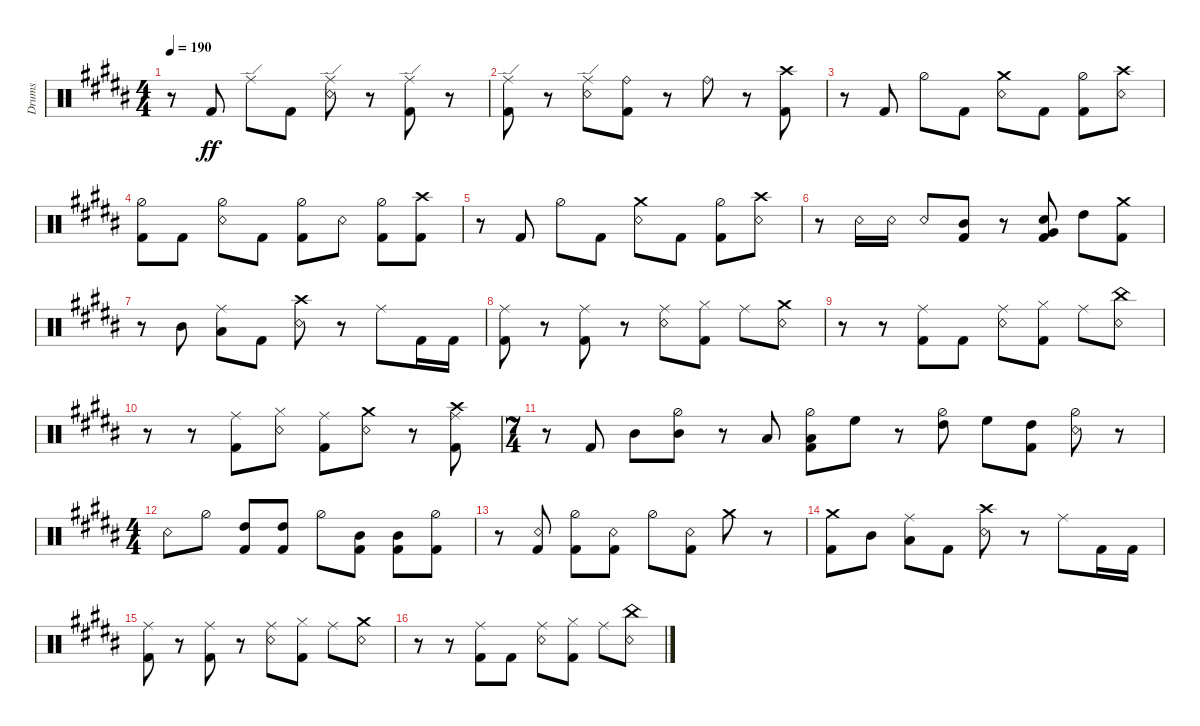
\bracketExtendMode groupsimilarinstruments
\otherSystemsTrackNameOrientation horizontal
\track ("Drumkit" "Drums") {instrument percussion}
\staff {score}
\articulation defaults
\ts (4 4)
\tempo 190
\clef neutral
\ks b
r.8{dy ff} "Kick (hit) 2"{acc forcenatural}.8 "Ride (edge)"{acc forcenatural}.8 "Kick (hit) 2"{acc forcenatural}.8 ("Snare (rim shot)"{acc forcenatural} "Ride (edge)"{acc forcenatural}).8 r.8 ("Kick (hit) 2"{acc forcenatural} "Ride (edge)"{acc forcenatural}).8 r.8 |
("Kick (hit) 2"{acc forcenatural} "Ride (edge)"{acc forcenatural}).8 r.8 ("Snare (rim shot)"{acc forcenatural} "Ride (edge)"{acc forcenatural}).8 ("Kick (hit) 2"{acc forcenatural} "Ride (bell)"{acc forcenatural}).8 r.8 "Ride (bell)"{acc forcenatural}.8 r.8 ("Crash high (hit)"{acc forcenatural} "Kick (hit) 2"{acc forcenatural}).8 |
r.8 "Kick (hit) 2"{acc forcenatural}.8 "Hi-Hat (half)"{acc forcenatural}.8 "Kick (hit) 2"{acc forcenatural}.8 ("Snare (rim shot)"{acc forcenatural} "Crash medium (hit)"{acc forcenatural}).8 "Kick (hit) 2"{acc forcenatural}.8 ("Kick (hit) 2"{acc forcenatural} "Hi-Hat (half)"{acc forcenatural}).8 ("Crash high (hit)"{acc forcenatural} "Snare (rim shot)"{acc forcenatural}).8 |
("Kick (hit) 2"{acc forcenatural} "Hi-Hat (half)"{acc forcenatural}).8 "Kick (hit) 2"{acc forcenatural}.8 ("Snare (rim shot)"{acc forcenatural} "Hi-Hat (half)"{acc forcenatural}).8 "Kick (hit) 2"{acc forcenatural}.8 ("Kick (hit) 2"{acc forcenatural} "Hi-Hat (half)"{acc forcenatural}).8 "Snare (rim shot)"{acc forcenatural}.8 ("Hi-Hat (half)"{acc forcenatural} "Kick (hit) 2"{acc forcenatural}).8 ("Crash high (hit)"{acc forcenatural} "Kick (hit) 2"{acc forcenatural}).8 |
r.8 "Kick (hit) 2"{acc forcenatural}.8 "Hi-Hat (half)"{acc forcenatural}.8 "Kick (hit) 2"{acc forcenatural}.8 ("Snare (rim shot)"{acc forcenatural} "Crash medium (hit)"{acc forcenatural}).8 "Kick (hit) 2"{acc forcenatural}.8 ("Kick (hit) 2"{acc forcenatural} "Hi-Hat (half)"{acc forcenatural}).8 ("Crash high (hit)"{acc forcenatural} "Snare (rim shot)"{acc forcenatural}).8 |
r.8 "Snare (rim shot)"{acc forcenatural}.16 "Snare (rim shot)"{acc forcenatural}.16 "Snare (rim shot)"{acc forcenatural}.8 ("Mid Tom (hit)"{acc forcenatural} "Kick (hit) 2"{acc forcenatural}).8 r.8 ("Kick (hit) 2"{acc forcenatural} "Very Low Tom (hit)"{acc forcenatural} "Snare (hit) 2"{acc forcenatural}).8 "High Tom (hit)"{acc forcenatural}.8 ("Crash medium (hit)"{acc forcenatural} "Kick (hit) 2"{acc forcenatural}).8 |
r.8 "Mid Tom (hit)"{acc forcenatural}.8 ("Low Tom (hit)"{acc forcenatural} "Ride (middle)"{acc forcenatural}).8 "Kick (hit) 2"{acc forcenatural}.8 ("Snare (rim shot)"{acc forcenatural} "Crash high (hit)"{acc forcenatural}).8 r.8 "Ride (middle)"{acc forcenatural}.8 "Kick (hit) 2"{acc forcenatural}.16 "Kick (hit) 2"{acc forcenatural}.16 |
("Kick (hit) 2"{acc forcenatural} "Ride (middle)"{acc forcenatural}).8 r.8 ("Kick (hit) 2"{acc forcenatural} "Ride (middle)"{acc forcenatural}).8 r.8 ("Snare (rim shot)"{acc forcenatural} "Ride (middle)"{acc forcenatural}).8 ("Kick (hit) 2"{acc forcenatural} "Hi-Hat (closed)"{acc forcenatural}).8 "Ride (middle)"{acc forcenatural}.8 ("Snare (rim shot)"{acc forcenatural} "Crash medium (hit)"{acc forcenatural}).8 |
r.8 r.8 ("Kick (hit) 2"{acc forcenatural} "Ride (middle)"{acc forcenatural}).8 "Kick (hit) 2"{acc forcenatural}.8 ("Snare (rim shot)"{acc forcenatural} "Ride (middle)"{acc forcenatural}).8 ("Kick (hit) 2"{acc forcenatural} "Hi-Hat (closed)"{acc forcenatural}).8 "Ride (middle)"{acc forcenatural}.8 ("Snare (rim shot)"{acc forcenatural} "China (hit)"{acc forcenatural}).8 |
r.8 r.8 ("Kick (hit) 2"{acc forcenatural} "Ride (middle)"{acc forcenatural}).8 ("Snare (rim shot)"{acc forcenatural} "Hi-Hat (closed)"{acc forcenatural}).8 ("Kick (hit) 2"{acc forcenatural} "Ride (middle)"{acc forcenatural}).8 ("Snare (rim shot)"{acc forcenatural} "Crash medium (hit)"{acc forcenatural}).8 r.8 ("Kick (hit) 2"{acc forcenatural} "Ride (middle)"{acc forcenatural} "Crash high (hit)"{acc forcenatural}).8 |
\ts (7 4)
r.8 "Kick (hit) 2"{acc forcenatural}.8 "Mid Tom (hit)"{acc forcenatural}.8 ("Hi-Hat (half)"{acc forcenatural} "Mid Tom (hit)"{acc forcenatural}).8 r.8 "Low Tom (hit)"{acc forcenatural}.8 ("Hi-Hat (half)"{acc forcenatural} "Kick (hit) 2"{acc forcenatural} "Low Tom (hit)"{acc forcenatural}).8 "High Floor Tom (hit)"{acc forcenatural}.8 r.8 ("Hi-Hat (half)"{acc forcenatural} "High Tom (hit)"{acc forcenatural}).8 "High Floor Tom (hit)"{acc forcenatural}.8 ("Kick (hit) 2"{acc forcenatural} "High Tom (hit)"{acc forcenatural}).8 ("Snare (rim shot)"{acc forcenatural} "Hi-Hat (half)"{acc forcenatural}).8 r.8 |
\ts (4 4)
"Snare (rim shot)"{acc forcenatural}.8 "Hi-Hat (half)"{acc forcenatural}.8 ("Kick (hit) 2"{acc forcenatural} "High Tom (hit)"{acc forcenatural}).8 ("Kick (hit) 2"{acc forcenatural} "High Tom (hit)"{acc forcenatural}).8 "Hi-Hat (half)"{acc forcenatural}.8 ("Kick (hit) 2"{acc forcenatural} "Mid Tom (hit)"{acc forcenatural}).8 ("Kick (hit) 2"{acc forcenatural} "Mid Tom (hit)"{acc forcenatural}).8 ("Kick (hit) 2"{acc forcenatural} "Hi-Hat (half)"{acc forcenatural}).8 |
r.8 ("Kick (hit) 2"{acc forcenatural} "Snare (rim shot)"{acc forcenatural}).8 ("Kick (hit) 2"{acc forcenatural} "Hi-Hat (half)"{acc forcenatural}).8 ("Kick (hit) 2"{acc forcenatural} "Snare (rim shot)"{acc forcenatural}).8 "Hi-Hat (half)"{acc forcenatural}.8 ("Kick (hit) 2"{acc forcenatural} "Snare (rim shot)"{acc forcenatural}).8 "Crash medium (hit)"{acc forcenatural}.8 r.8 |
("Crash medium (hit)"{acc forcenatural} "Kick (hit) 2"{acc forcenatural}).8 "Mid Tom (hit)"{acc forcenatural}.8 ("Low Tom (hit)"{acc forcenatural} "Ride (middle)"{acc forcenatural}).8 "Kick (hit) 2"{acc forcenatural}.8 ("Snare (rim shot)"{acc forcenatural} "Crash high (hit)"{acc forcenatural}).8 r.8 "Ride (middle)"{acc forcenatural}.8 "Kick (hit) 2"{acc forcenatural}.16 "Kick (hit) 2"{acc forcenatural}.16 |
("Kick (hit) 2"{acc forcenatural} "Ride (middle)"{acc forcenatural}).8 r.8 ("Kick (hit) 2"{acc forcenatural} "Ride (middle)"{acc forcenatural}).8 r.8 ("Snare (rim shot)"{acc forcenatural} "Ride (middle)"{acc forcenatural}).8 ("Kick (hit) 2"{acc forcenatural} "Hi-Hat (closed)"{acc forcenatural}).8 "Ride (middle)"{acc forcenatural}.8 ("Snare (rim shot)"{acc forcenatural} "Crash medium (hit)"{acc forcenatural}).8 |
r.8 r.8 ("Kick (hit) 2"{acc forcenatural} "Ride (middle)"{acc forcenatural}).8 "Kick (hit) 2"{acc forcenatural}.8 ("Snare (rim shot)"{acc forcenatural} "Ride (middle)"{acc forcenatural}).8 ("Kick (hit) 2"{acc forcenatural} "Hi-Hat (closed)"{acc forcenatural}).8 "Ride (middle)"{acc forcenatural}.8 ("Snare (rim shot)"{acc forcenatural} "China (hit)"{acc forcenatural}).8
